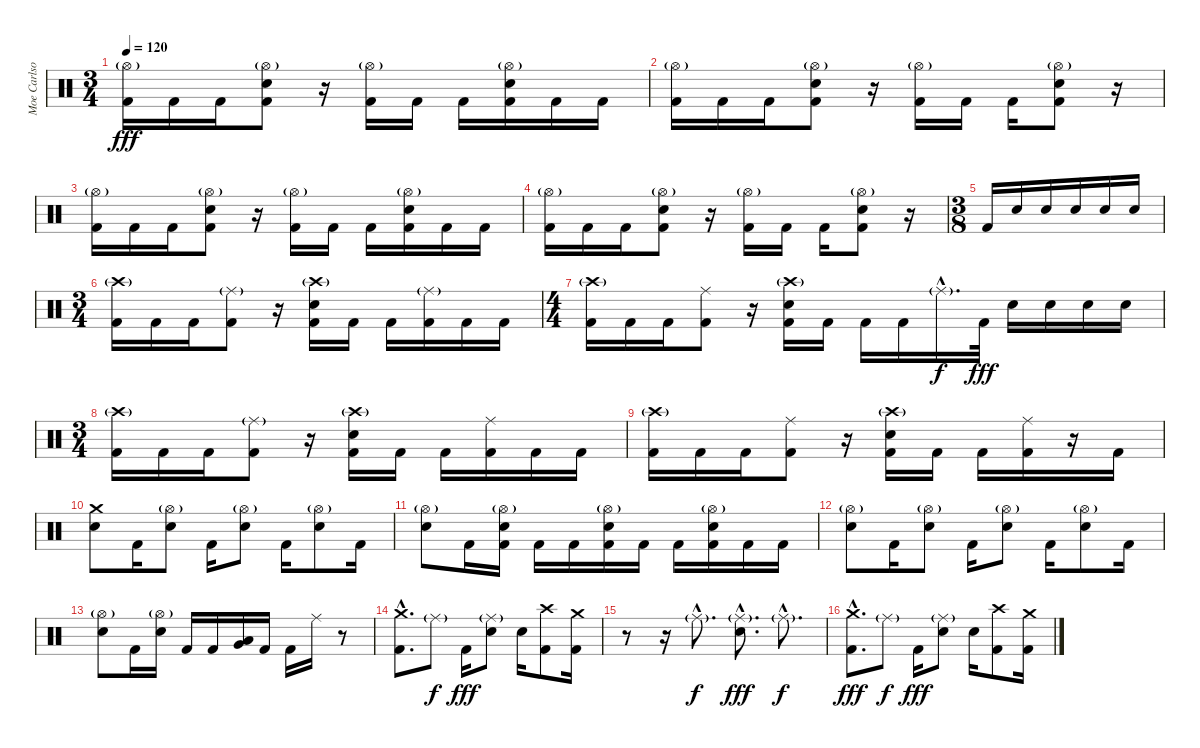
\track ("Moe Carlson" "Moe Carlso") {instrument percussion}
\staff {score}
\articulation defaults
\ts (3 4)
\tempo 120
\clef neutral
\ks c
("Hi-Hat (open)"{g} "Kick (hit) 2").16{dy fff} "Kick (hit) 2".16 "Kick (hit) 2".16 ("Hi-Hat (open)"{g} "Electric Snare (hit)" "Kick (hit) 2").8 r.16 ("Hi-Hat (open)"{g} "Kick (hit) 2").16 "Kick (hit) 2".16 "Kick (hit) 2".16 ("Hi-Hat (open)"{g} "Electric Snare (hit)" "Kick (hit) 2").16 "Kick (hit) 2".16 "Kick (hit) 2".16 |
("Hi-Hat (open)"{g} "Kick (hit) 2").16 "Kick (hit) 2".16 "Kick (hit) 2".16 ("Hi-Hat (open)"{g} "Electric Snare (hit)" "Kick (hit) 2").8 r.16 ("Hi-Hat (open)"{g} "Kick (hit) 2").16 "Kick (hit) 2".16 "Kick (hit) 2".16 ("Hi-Hat (open)"{g} "Electric Snare (hit)" "Kick (hit) 2").8 r.16 |
("Hi-Hat (open)"{g} "Kick (hit) 2").16 "Kick (hit) 2".16 "Kick (hit) 2".16 ("Hi-Hat (open)"{g} "Electric Snare (hit)" "Kick (hit) 2").8 r.16 ("Hi-Hat (open)"{g} "Kick (hit) 2").16 "Kick (hit) 2".16 "Kick (hit) 2".16 ("Hi-Hat (open)"{g} "Electric Snare (hit)" "Kick (hit) 2").16 "Kick (hit) 2".16 "Kick (hit) 2".16 |
("Hi-Hat (open)"{g} "Kick (hit) 2").16 "Kick (hit) 2".16 "Kick (hit) 2".16 ("Hi-Hat (open)"{g} "Electric Snare (hit)" "Kick (hit) 2").8 r.16 ("Hi-Hat (open)"{g} "Kick (hit) 2").16 "Kick (hit) 2".16 "Kick (hit) 2".16 ("Hi-Hat (open)"{g} "Electric Snare (hit)" "Kick (hit) 2").8 r.16 |
\ts (3 8)
"Kick (hit) 2".16 "Electric Snare (hit)".16 "Electric Snare (hit)".16 "Electric Snare (hit)".16 "Electric Snare (hit)".16 "Electric Snare (hit)".16 |
\ts (3 4)
("Crash high (hit)"{g} "Kick (hit) 2").16 "Kick (hit) 2".16 "Kick (hit) 2".16 ("Ride (middle)"{g} "Kick (hit) 2").8 r.16 ("Crash high (hit)"{g} "Electric Snare (hit)" "Kick (hit) 2").16 "Kick (hit) 2".16 "Kick (hit) 2".16 ("Ride (middle)"{g} "Kick (hit) 2").16 "Kick (hit) 2".16 "Kick (hit) 2".16 |
\ts (4 4)
("Crash high (hit)"{g} "Kick (hit) 2").16 "Kick (hit) 2".16 "Kick (hit) 2".16 ("Ride (middle)" "Kick (hit) 2").8 r.16 ("Crash high (hit)"{g} "Electric Snare (hit)" "Kick (hit) 2").16 "Kick (hit) 2".16 "Kick (hit) 2".16 "Kick (hit) 2".16 "Ride (middle)"{g hac}.16{d dy f} "Kick (hit) 2".32{dy fff} "Electric Snare (hit)".16 "Electric Snare (hit)".16 "Electric Snare (hit)".16 "Electric Snare (hit)".16 |
\ts (3 4)
("Crash high (hit)"{g} "Kick (hit) 2").16 "Kick (hit) 2".16 "Kick (hit) 2".16 ("Ride (middle)"{g} "Kick (hit) 2").8 r.16 ("Crash high (hit)"{g} "Electric Snare (hit)" "Kick (hit) 2").16 "Kick (hit) 2".16 "Kick (hit) 2".16 ("Ride (middle)" "Kick (hit) 2").16 "Kick (hit) 2".16 "Kick (hit) 2".16 |
("Crash high (hit)"{g} "Kick (hit) 2").16 "Kick (hit) 2".16 "Kick (hit) 2".16 ("Ride (middle)" "Kick (hit) 2").8 r.16 ("Crash high (hit)"{g} "Electric Snare (hit)" "Kick (hit) 2").16 "Kick (hit) 2".16 "Kick (hit) 2".16 ("Ride (middle)" "Kick (hit) 2").16 r.16 "Kick (hit) 2".16 |
("Crash medium (hit)" "Electric Snare (hit)").8 "Kick (hit) 2".16 ("Hi-Hat (open)"{g} "Electric Snare (hit)").8 "Kick (hit) 2".16 ("Hi-Hat (open)"{g} "Electric Snare (hit)").8 "Kick (hit) 2".16 ("Hi-Hat (open)"{g} "Electric Snare (hit)").8 "Kick (hit) 2".16 |
("Hi-Hat (open)"{g} "Electric Snare (hit)").8 "Kick (hit) 2".16 ("Hi-Hat (open)"{g} "Electric Snare (hit)" "Kick (hit) 2").16 "Kick (hit) 2".16 "Kick (hit) 2".16 ("Hi-Hat (open)"{g} "Electric Snare (hit)" "Kick (hit) 2").16 "Kick (hit) 2".16 "Kick (hit) 2".16 ("Hi-Hat (open)"{g} "Electric Snare (hit)" "Kick (hit) 2").16 "Kick (hit) 2".16 "Kick (hit) 2".16 |
("Hi-Hat (open)"{g} "Electric Snare (hit)").8 "Kick (hit) 2".16 ("Hi-Hat (open)"{g} "Electric Snare (hit)").8 "Kick (hit) 2".16 ("Hi-Hat (open)"{g} "Electric Snare (hit)").8 "Kick (hit) 2".16 ("Hi-Hat (open)"{g} "Electric Snare (hit)").8 "Kick (hit) 2".16 |
("Hi-Hat (open)"{g} "Electric Snare (hit)").8 "Kick (hit) 2".16 ("Hi-Hat (open)"{g} "Electric Snare (hit)").16 "Kick (hit) 2".16 "Kick (hit) 2".16 ("Low Tom (hit)" "Very Low Tom (hit)").16 "Kick (hit) 2".16 "Kick (hit) 2".16 "Ride (middle)".16 r.8 |
("Crash medium (hit)"{hac} "Kick (hit) 2"{hac}).8{d} "Ride (middle)"{g}.8{dy f} "Kick (hit) 2".16{dy fff} ("Ride (middle)"{g} "Electric Snare (hit)").8 "Electric Snare (hit)".16 ("Crash high (hit)" "Kick (hit) 2").8 ("Crash medium (hit)" "Kick (hit) 2").16 |
r.8 r.16 "Ride (middle)"{g hac}.8{d dy f} ("Ride (middle)"{g hac} "Electric Snare (hit)"{hac}).8{d dy fff} "Ride (middle)"{g hac}.8{d dy f} |
("Crash medium (hit)"{hac} "Kick (hit) 2"{hac}).8{d dy fff} "Ride (middle)"{g}.8{dy f} "Kick (hit) 2".16{dy fff} ("Ride (middle)"{g} "Electric Snare (hit)").8 "Electric Snare (hit)".16 ("Crash high (hit)" "Kick (hit) 2").8 ("Crash medium (hit)" "Kick (hit) 2").16
